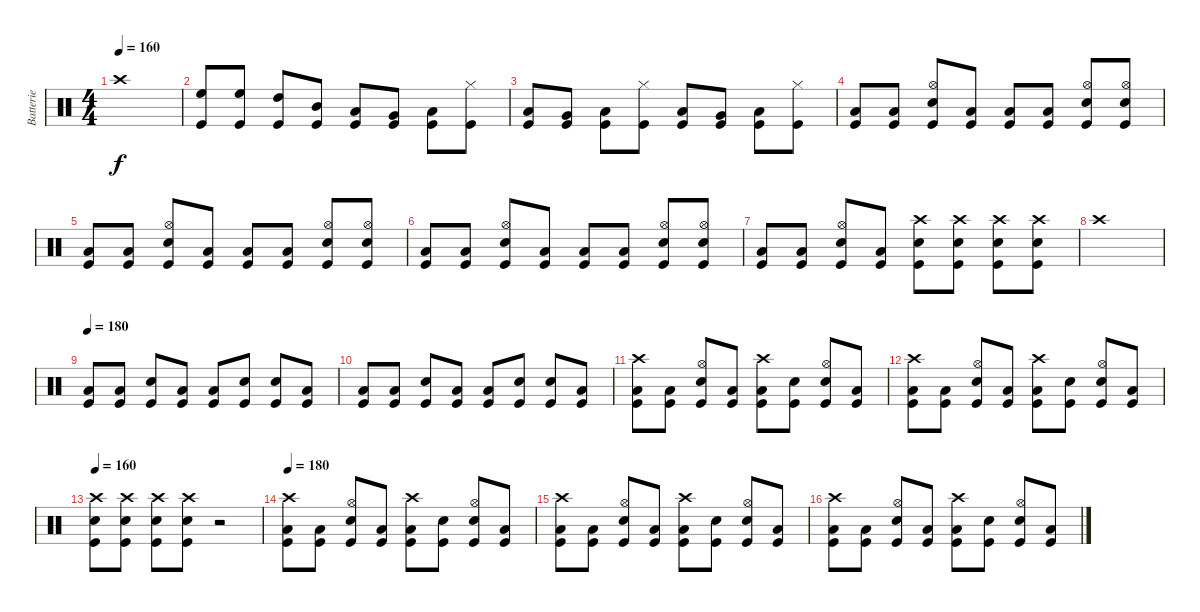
\track ("Batterie" "Batterie") {instrument percussion}
\staff {score}
\articulation defaults
\ts (4 4)
\tempo 160
\clef neutral
\ks c "Crash high (hit)".1{dy f}
|
("Kick (hit)" "High Floor Tom (hit)").8 ("Kick (hit)" "High Floor Tom (hit)").8 ("Kick (hit)" "High Tom (hit)").8 ("Kick (hit)" "Mid Tom (hit)").8 ("Kick (hit)" "Low Tom (hit)").8 ("Kick (hit)" "Very Low Tom (hit)").8 ("Kick (hit)" "Low Floor Tom (hit)").8 ("Kick (hit)" "Hi-Hat (closed)").8 |
("Kick (hit)" "Low Tom (hit)").8 ("Kick (hit)" "Very Low Tom (hit)").8 ("Kick (hit)" "Low Floor Tom (hit)").8 ("Kick (hit)" "Hi-Hat (closed)").8 ("Kick (hit)" "Low Tom (hit)").8 ("Kick (hit)" "Very Low Tom (hit)").8 ("Kick (hit)" "Low Floor Tom (hit)").8 ("Kick (hit)" "Hi-Hat (closed)").8 |
("Low Floor Tom (hit)" "Kick (hit)").8 ("Low Floor Tom (hit)" "Kick (hit)").8 ("Hi-Hat (open)" "Snare (hit) 2" "Kick (hit)").8 ("Low Floor Tom (hit)" "Kick (hit)").8 ("Low Floor Tom (hit)" "Kick (hit)").8 ("Low Floor Tom (hit)" "Kick (hit)").8 ("Hi-Hat (open)" "Snare (hit) 2" "Kick (hit)").8 ("Hi-Hat (open)" "Snare (hit) 2" "Kick (hit)").8 |
("Low Floor Tom (hit)" "Kick (hit)").8 ("Low Floor Tom (hit)" "Kick (hit)").8 ("Hi-Hat (open)" "Snare (hit) 2" "Kick (hit)").8 ("Low Floor Tom (hit)" "Kick (hit)").8 ("Low Floor Tom (hit)" "Kick (hit)").8 ("Low Floor Tom (hit)" "Kick (hit)").8 ("Hi-Hat (open)" "Snare (hit) 2" "Kick (hit)").8 ("Hi-Hat (open)" "Snare (hit) 2" "Kick (hit)").8 |
("Low Floor Tom (hit)" "Kick (hit)").8 ("Low Floor Tom (hit)" "Kick (hit)").8 ("Hi-Hat (open)" "Snare (hit) 2" "Kick (hit)").8 ("Low Floor Tom (hit)" "Kick (hit)").8 ("Low Floor Tom (hit)" "Kick (hit)").8 ("Low Floor Tom (hit)" "Kick (hit)").8 ("Hi-Hat (open)" "Snare (hit) 2" "Kick (hit)").8 ("Hi-Hat (open)" "Snare (hit) 2" "Kick (hit)").8 |
("Low Floor Tom (hit)" "Kick (hit)").8 ("Low Floor Tom (hit)" "Kick (hit)").8 ("Hi-Hat (open)" "Snare (hit) 2" "Kick (hit)").8 ("Low Floor Tom (hit)" "Kick (hit)").8 ("Snare (hit) 2" "Kick (hit)" "Crash high (hit)").8 ("Snare (hit) 2" "Kick (hit)" "Crash high (hit)").8 ("Snare (hit) 2" "Kick (hit)" "Crash high (hit)").8 ("Snare (hit) 2" "Kick (hit)" "Crash high (hit)").8 |
"Crash high (hit)".1 |
\tempo 180
("Kick (hit)" "Low Tom (hit)").8 ("Kick (hit)" "Low Tom (hit)").8 ("Kick (hit)" "Snare (hit) 2").8 ("Kick (hit)" "Low Tom (hit)").8 ("Kick (hit)" "Low Tom (hit)").8 ("Kick (hit)" "Snare (hit) 2").8 ("Kick (hit)" "Snare (hit) 2").8 ("Low Floor Tom (hit)" "Kick (hit)").8 |
("Kick (hit)" "Low Tom (hit)").8 ("Kick (hit)" "Low Tom (hit)").8 ("Kick (hit)" "Snare (hit) 2").8 ("Kick (hit)" "Low Tom (hit)").8 ("Kick (hit)" "Low Tom (hit)").8 ("Kick (hit)" "Snare (hit) 2").8 ("Kick (hit)" "Snare (hit) 2").8 ("Low Floor Tom (hit)" "Kick (hit)").8 |
("Kick (hit)" "Low Tom (hit)" "Crash high (hit)").8 ("Kick (hit)" "Low Tom (hit)").8 ("Kick (hit)" "Snare (hit) 2" "Hi-Hat (open)").8 ("Kick (hit)" "Low Tom (hit)").8 ("Kick (hit)" "Low Tom (hit)" "Crash high (hit)").8 ("Kick (hit)" "Snare (hit) 2").8 ("Kick (hit)" "Snare (hit) 2" "Hi-Hat (open)").8 ("Low Floor Tom (hit)" "Kick (hit)").8 |
("Kick (hit)" "Low Tom (hit)" "Crash high (hit)").8 ("Kick (hit)" "Low Tom (hit)").8 ("Kick (hit)" "Snare (hit) 2" "Hi-Hat (open)").8 ("Kick (hit)" "Low Tom (hit)").8 ("Kick (hit)" "Low Tom (hit)" "Crash high (hit)").8 ("Kick (hit)" "Snare (hit) 2").8 ("Kick (hit)" "Snare (hit) 2" "Hi-Hat (open)").8 ("Low Floor Tom (hit)" "Kick (hit)").8 |
\tempo 160
("Snare (hit) 2" "Kick (hit)" "Crash high (hit)").8 ("Snare (hit) 2" "Kick (hit)" "Crash high (hit)").8 ("Snare (hit) 2" "Kick (hit)" "Crash high (hit)").8 ("Snare (hit) 2" "Kick (hit)" "Crash high (hit)").8 r.2 |
\tempo 180
("Kick (hit)" "Low Tom (hit)" "Crash high (hit)").8 ("Kick (hit)" "Low Tom (hit)").8 ("Kick (hit)" "Snare (hit) 2" "Hi-Hat (open)").8 ("Kick (hit)" "Low Tom (hit)").8 ("Kick (hit)" "Low Tom (hit)" "Crash high (hit)").8 ("Kick (hit)" "Snare (hit) 2").8 ("Kick (hit)" "Snare (hit) 2" "Hi-Hat (open)").8 ("Low Floor Tom (hit)" "Kick (hit)").8 |
("Kick (hit)" "Low Tom (hit)" "Crash high (hit)").8 ("Kick (hit)" "Low Tom (hit)").8 ("Kick (hit)" "Snare (hit) 2" "Hi-Hat (open)").8 ("Kick (hit)" "Low Tom (hit)").8 ("Kick (hit)" "Low Tom (hit)" "Crash high (hit)").8 ("Kick (hit)" "Snare (hit) 2").8 ("Kick (hit)" "Snare (hit) 2" "Hi-Hat (open)").8 ("Low Floor Tom (hit)" "Kick (hit)").8 |
("Kick (hit)" "Low Tom (hit)" "Crash high (hit)").8 ("Kick (hit)" "Low Tom (hit)").8 ("Kick (hit)" "Snare (hit) 2" "Hi-Hat (open)").8 ("Kick (hit)" "Low Tom (hit)").8 ("Kick (hit)" "Low Tom (hit)" "Crash high (hit)").8 ("Kick (hit)" "Snare (hit) 2").8 ("Kick (hit)" "Snare (hit) 2" "Hi-Hat (open)").8 ("Low Floor Tom (hit)" "Kick (hit)").8
